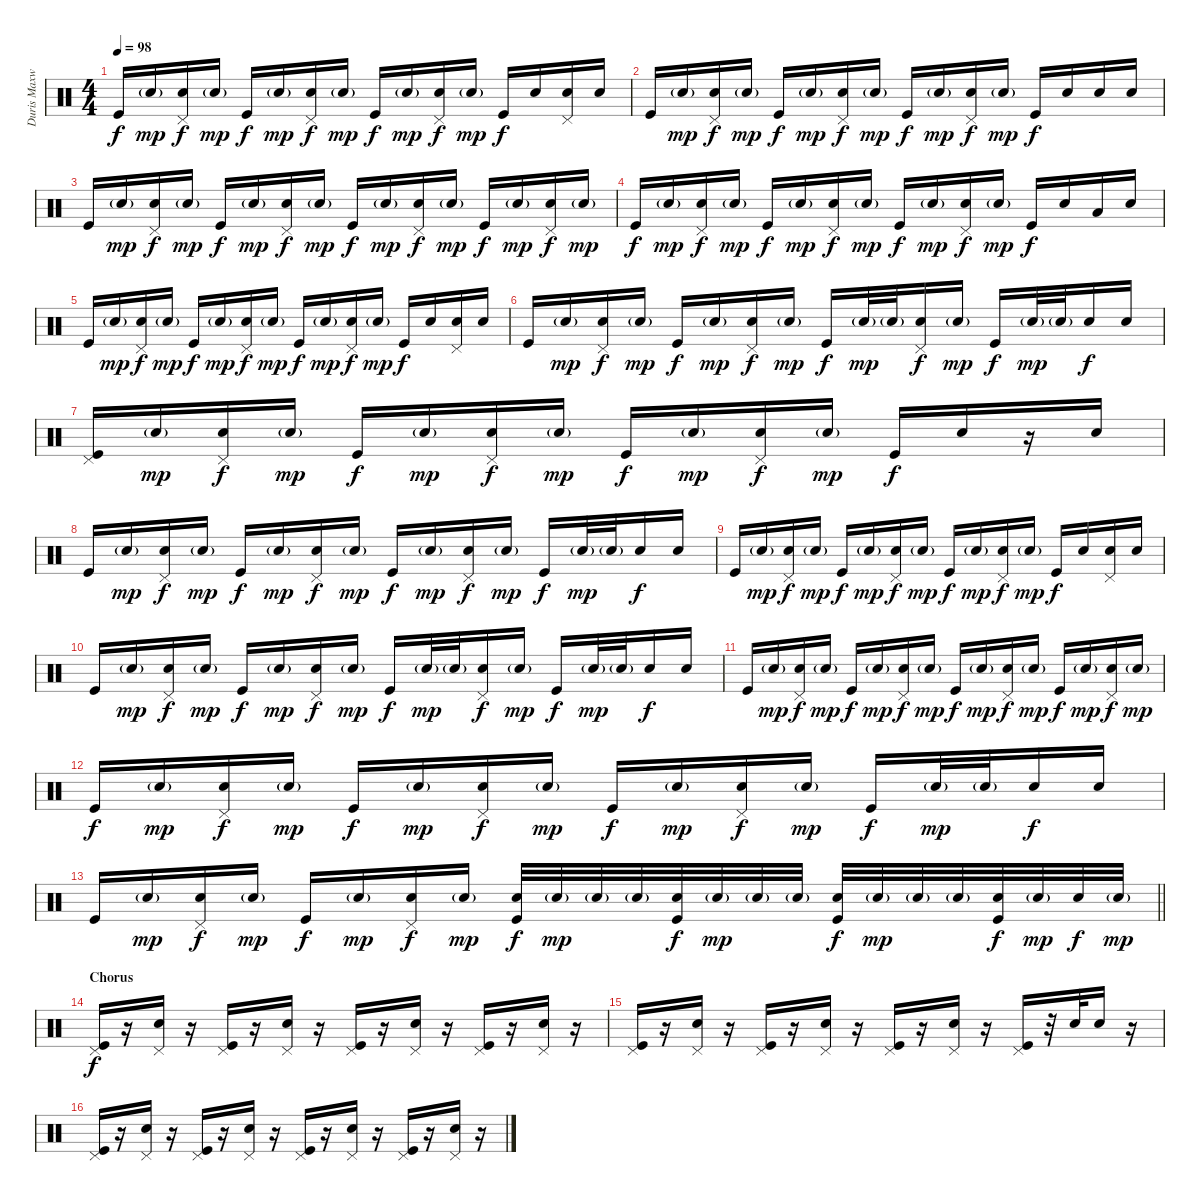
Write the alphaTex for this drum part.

\track ("Duris Maxwell" "Duris Maxw") {instrument percussion}
\staff {score}
\articulation defaults
\ts (4 4)
\tempo 98
\clef neutral
\ks c "Kick (hit)".16{dy f} "Snare (hit) 2"{g}.16{dy mp}
("Pedal Hi-Hat (hit)" "Snare (hit) 2").16{dy f} "Snare (hit) 2"{g}.16{dy mp} "Kick (hit)".16{dy f} "Snare (hit) 2"{g}.16{dy mp} ("Pedal Hi-Hat (hit)" "Snare (hit) 2").16{dy f} "Snare (hit) 2"{g}.16{dy mp} "Kick (hit)".16{dy f} "Snare (hit) 2"{g}.16{dy mp} ("Pedal Hi-Hat (hit)" "Snare (hit) 2").16{dy f} "Snare (hit) 2"{g}.16{dy mp} "Kick (hit)".16{dy f} "Snare (hit) 2".16 ("Pedal Hi-Hat (hit)" "Snare (hit) 2").16 "Snare (hit) 2".16 |
"Kick (hit)".16 "Snare (hit) 2"{g}.16{dy mp} ("Pedal Hi-Hat (hit)" "Snare (hit) 2").16{dy f} "Snare (hit) 2"{g}.16{dy mp} "Kick (hit)".16{dy f} "Snare (hit) 2"{g}.16{dy mp} ("Pedal Hi-Hat (hit)" "Snare (hit) 2").16{dy f} "Snare (hit) 2"{g}.16{dy mp} "Kick (hit)".16{dy f} "Snare (hit) 2"{g}.16{dy mp} ("Pedal Hi-Hat (hit)" "Snare (hit) 2").16{dy f} "Snare (hit) 2"{g}.16{dy mp} "Kick (hit)".16{dy f} "Snare (hit) 2".16 "Snare (hit) 2".16 "Snare (hit) 2".16 |
"Kick (hit)".16 "Snare (hit) 2"{g}.16{dy mp} ("Pedal Hi-Hat (hit)" "Snare (hit) 2").16{dy f} "Snare (hit) 2"{g}.16{dy mp} "Kick (hit)".16{dy f} "Snare (hit) 2"{g}.16{dy mp} ("Pedal Hi-Hat (hit)" "Snare (hit) 2").16{dy f} "Snare (hit) 2"{g}.16{dy mp} "Kick (hit)".16{dy f} "Snare (hit) 2"{g}.16{dy mp} ("Pedal Hi-Hat (hit)" "Snare (hit) 2").16{dy f} "Snare (hit) 2"{g}.16{dy mp} "Kick (hit)".16{dy f} "Snare (hit) 2"{g}.16{dy mp} ("Pedal Hi-Hat (hit)" "Snare (hit) 2").16{dy f} "Snare (hit) 2"{g}.16{dy mp} |
"Kick (hit)".16{dy f} "Snare (hit) 2"{g}.16{dy mp} ("Pedal Hi-Hat (hit)" "Snare (hit) 2").16{dy f} "Snare (hit) 2"{g}.16{dy mp} "Kick (hit)".16{dy f} "Snare (hit) 2"{g}.16{dy mp} ("Pedal Hi-Hat (hit)" "Snare (hit) 2").16{dy f} "Snare (hit) 2"{g}.16{dy mp} "Kick (hit)".16{dy f} "Snare (hit) 2"{g}.16{dy mp} ("Pedal Hi-Hat (hit)" "Snare (hit) 2").16{dy f} "Snare (hit) 2"{g}.16{dy mp} "Kick (hit)".16{dy f} "Snare (hit) 2".16 "Low Tom (hit)".16 "Snare (hit) 2".16 |
"Kick (hit)".16 "Snare (hit) 2"{g}.16{dy mp} ("Pedal Hi-Hat (hit)" "Snare (hit) 2").16{dy f} "Snare (hit) 2"{g}.16{dy mp} "Kick (hit)".16{dy f} "Snare (hit) 2"{g}.16{dy mp} ("Pedal Hi-Hat (hit)" "Snare (hit) 2").16{dy f} "Snare (hit) 2"{g}.16{dy mp} "Kick (hit)".16{dy f} "Snare (hit) 2"{g}.16{dy mp} ("Pedal Hi-Hat (hit)" "Snare (hit) 2").16{dy f} "Snare (hit) 2"{g}.16{dy mp} "Kick (hit)".16{dy f} "Snare (hit) 2".16 ("Pedal Hi-Hat (hit)" "Snare (hit) 2").16 "Snare (hit) 2".16 |
"Kick (hit)".16 "Snare (hit) 2"{g}.16{dy mp} ("Pedal Hi-Hat (hit)" "Snare (hit) 2").16{dy f} "Snare (hit) 2"{g}.16{dy mp} "Kick (hit)".16{dy f} "Snare (hit) 2"{g}.16{dy mp} ("Pedal Hi-Hat (hit)" "Snare (hit) 2").16{dy f} "Snare (hit) 2"{g}.16{dy mp} "Kick (hit)".16{dy f} "Snare (hit) 2"{g}.32{dy mp} "Snare (hit) 2"{g}.32 ("Pedal Hi-Hat (hit)" "Snare (hit) 2").16{dy f} "Snare (hit) 2"{g}.16{dy mp} "Kick (hit)".16{dy f} "Snare (hit) 2"{g}.32{dy mp} "Snare (hit) 2"{g}.32 "Snare (hit) 2".16{dy f} "Snare (hit) 2".16 |
("Pedal Hi-Hat (hit)" "Kick (hit)").16 "Snare (hit) 2"{g}.16{dy mp} ("Pedal Hi-Hat (hit)" "Snare (hit) 2").16{dy f} "Snare (hit) 2"{g}.16{dy mp} "Kick (hit)".16{dy f} "Snare (hit) 2"{g}.16{dy mp} ("Pedal Hi-Hat (hit)" "Snare (hit) 2").16{dy f} "Snare (hit) 2"{g}.16{dy mp} "Kick (hit)".16{dy f} "Snare (hit) 2"{g}.16{dy mp} ("Pedal Hi-Hat (hit)" "Snare (hit) 2").16{dy f} "Snare (hit) 2"{g}.16{dy mp} "Kick (hit)".16{dy f} "Snare (hit) 2".16 r.16 "Snare (hit) 2".16 |
"Kick (hit)".16 "Snare (hit) 2"{g}.16{dy mp} ("Pedal Hi-Hat (hit)" "Snare (hit) 2").16{dy f} "Snare (hit) 2"{g}.16{dy mp} "Kick (hit)".16{dy f} "Snare (hit) 2"{g}.16{dy mp} ("Pedal Hi-Hat (hit)" "Snare (hit) 2").16{dy f} "Snare (hit) 2"{g}.16{dy mp} "Kick (hit)".16{dy f} "Snare (hit) 2"{g}.16{dy mp} ("Pedal Hi-Hat (hit)" "Snare (hit) 2").16{dy f} "Snare (hit) 2"{g}.16{dy mp} "Kick (hit)".16{dy f} "Snare (hit) 2"{g}.32{dy mp} "Snare (hit) 2"{g}.32 "Snare (hit) 2".16{dy f} "Snare (hit) 2".16 |
"Kick (hit)".16 "Snare (hit) 2"{g}.16{dy mp} ("Pedal Hi-Hat (hit)" "Snare (hit) 2").16{dy f} "Snare (hit) 2"{g}.16{dy mp} "Kick (hit)".16{dy f} "Snare (hit) 2"{g}.16{dy mp} ("Pedal Hi-Hat (hit)" "Snare (hit) 2").16{dy f} "Snare (hit) 2"{g}.16{dy mp} "Kick (hit)".16{dy f} "Snare (hit) 2"{g}.16{dy mp} ("Pedal Hi-Hat (hit)" "Snare (hit) 2").16{dy f} "Snare (hit) 2"{g}.16{dy mp} "Kick (hit)".16{dy f} "Snare (hit) 2".16 ("Pedal Hi-Hat (hit)" "Snare (hit) 2").16 "Snare (hit) 2".16 |
"Kick (hit)".16 "Snare (hit) 2"{g}.16{dy mp} ("Pedal Hi-Hat (hit)" "Snare (hit) 2").16{dy f} "Snare (hit) 2"{g}.16{dy mp} "Kick (hit)".16{dy f} "Snare (hit) 2"{g}.16{dy mp} ("Pedal Hi-Hat (hit)" "Snare (hit) 2").16{dy f} "Snare (hit) 2"{g}.16{dy mp} "Kick (hit)".16{dy f} "Snare (hit) 2"{g}.32{dy mp} "Snare (hit) 2"{g}.32 ("Pedal Hi-Hat (hit)" "Snare (hit) 2").16{dy f} "Snare (hit) 2"{g}.16{dy mp} "Kick (hit)".16{dy f} "Snare (hit) 2"{g}.32{dy mp} "Snare (hit) 2"{g}.32 "Snare (hit) 2".16{dy f} "Snare (hit) 2".16 |
"Kick (hit)".16 "Snare (hit) 2"{g}.16{dy mp} ("Pedal Hi-Hat (hit)" "Snare (hit) 2").16{dy f} "Snare (hit) 2"{g}.16{dy mp} "Kick (hit)".16{dy f} "Snare (hit) 2"{g}.16{dy mp} ("Pedal Hi-Hat (hit)" "Snare (hit) 2").16{dy f} "Snare (hit) 2"{g}.16{dy mp} "Kick (hit)".16{dy f} "Snare (hit) 2"{g}.16{dy mp} ("Pedal Hi-Hat (hit)" "Snare (hit) 2").16{dy f} "Snare (hit) 2"{g}.16{dy mp} "Kick (hit)".16{dy f} "Snare (hit) 2"{g}.16{dy mp} ("Pedal Hi-Hat (hit)" "Snare (hit) 2").16{dy f} "Snare (hit) 2"{g}.16{dy mp} |
"Kick (hit)".16{dy f} "Snare (hit) 2"{g}.16{dy mp} ("Pedal Hi-Hat (hit)" "Snare (hit) 2").16{dy f} "Snare (hit) 2"{g}.16{dy mp} "Kick (hit)".16{dy f} "Snare (hit) 2"{g}.16{dy mp} ("Pedal Hi-Hat (hit)" "Snare (hit) 2").16{dy f} "Snare (hit) 2"{g}.16{dy mp} "Kick (hit)".16{dy f} "Snare (hit) 2"{g}.16{dy mp} ("Pedal Hi-Hat (hit)" "Snare (hit) 2").16{dy f} "Snare (hit) 2"{g}.16{dy mp} "Kick (hit)".16{dy f} "Snare (hit) 2"{g}.32{dy mp} "Snare (hit) 2"{g}.32 "Snare (hit) 2".16{dy f} "Snare (hit) 2".16 |
\barLineRight lightlight "Kick (hit)".16 "Snare (hit) 2"{g}.16{dy mp}
("Pedal Hi-Hat (hit)" "Snare (hit) 2").16{dy f} "Snare (hit) 2"{g}.16{dy mp} "Kick (hit)".16{dy f} "Snare (hit) 2"{g}.16{dy mp} ("Pedal Hi-Hat (hit)" "Snare (hit) 2").16{dy f} "Snare (hit) 2"{g}.16{dy mp} ("Snare (hit) 2" "Kick (hit)").32{dy f} "Snare (hit) 2"{g}.32{dy mp} "Snare (hit) 2"{g}.32 "Snare (hit) 2"{g}.32 ("Snare (hit) 2" "Kick (hit)").32{dy f} "Snare (hit) 2"{g}.32{dy mp} "Snare (hit) 2"{g}.32 "Snare (hit) 2"{g}.32 ("Snare (hit) 2" "Kick (hit)").32{dy f} "Snare (hit) 2"{g}.32{dy mp} "Snare (hit) 2"{g}.32 "Snare (hit) 2"{g}.32 ("Snare (hit) 2" "Kick (hit)").32{dy f} "Snare (hit) 2"{g}.32{dy mp} "Snare (hit) 2".32{dy f} "Snare (hit) 2"{g}.32{dy mp} |
\section ("" "Chorus")
("Pedal Hi-Hat (hit)" "Kick (hit)").16{dy f} r.16 ("Pedal Hi-Hat (hit)" "Snare (hit) 2").16 r.16 ("Pedal Hi-Hat (hit)" "Kick (hit)").16 r.16 ("Pedal Hi-Hat (hit)" "Snare (hit) 2").16 r.16 ("Pedal Hi-Hat (hit)" "Kick (hit)").16 r.16 ("Pedal Hi-Hat (hit)" "Snare (hit) 2").16 r.16 ("Pedal Hi-Hat (hit)" "Kick (hit)").16 r.16 ("Pedal Hi-Hat (hit)" "Snare (hit) 2").16 r.16 |
("Pedal Hi-Hat (hit)" "Kick (hit)").16 r.16 ("Pedal Hi-Hat (hit)" "Snare (hit) 2").16 r.16 ("Pedal Hi-Hat (hit)" "Kick (hit)").16 r.16 ("Pedal Hi-Hat (hit)" "Snare (hit) 2").16 r.16 ("Pedal Hi-Hat (hit)" "Kick (hit)").16 r.16 ("Pedal Hi-Hat (hit)" "Snare (hit) 2").16 r.16 ("Pedal Hi-Hat (hit)" "Kick (hit)").16 r.32 "Snare (hit) 2".32 "Snare (hit) 2".16 r.16 |
("Pedal Hi-Hat (hit)" "Kick (hit)").16 r.16 ("Pedal Hi-Hat (hit)" "Snare (hit) 2").16 r.16 ("Pedal Hi-Hat (hit)" "Kick (hit)").16 r.16 ("Pedal Hi-Hat (hit)" "Snare (hit) 2").16 r.16 ("Pedal Hi-Hat (hit)" "Kick (hit)").16 r.16 ("Pedal Hi-Hat (hit)" "Snare (hit) 2").16 r.16 ("Pedal Hi-Hat (hit)" "Kick (hit)").16 r.16 ("Pedal Hi-Hat (hit)" "Snare (hit) 2").16 r.16
